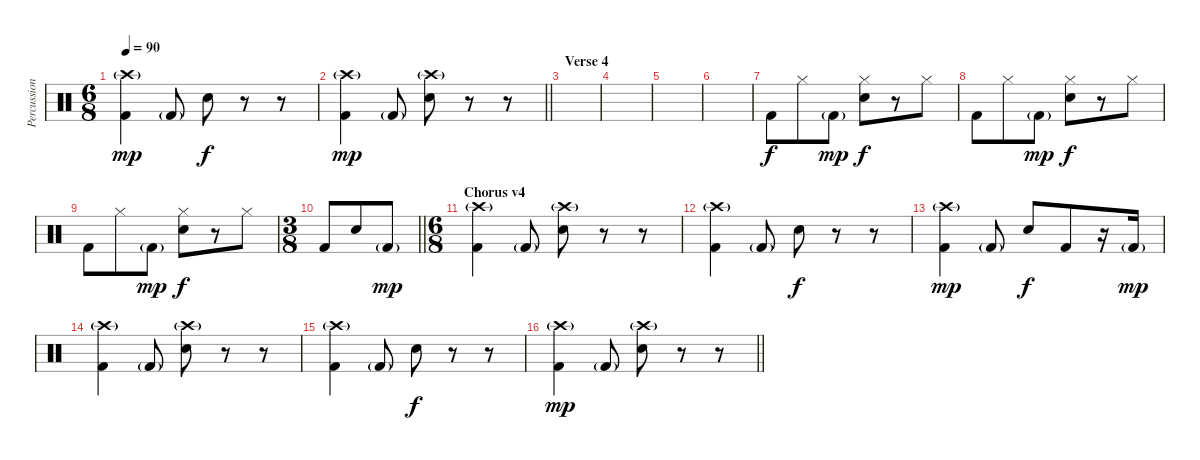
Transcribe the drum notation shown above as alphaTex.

\track ("Percussion" "Percussion") {instrument percussion}
\staff {score}
\articulation defaults
\ts (6 8)
\tempo 90
\clef neutral
\ks c
("Crash high (hit)"{g} "Kick (hit) 2").4{dy mp} "Kick (hit) 2"{g}.8 "Snare (hit) 2".8{dy f} r.8 r.8 |
\barLineRight lightlight
("Crash high (hit)"{g} "Kick (hit) 2").4{dy mp} "Kick (hit) 2"{g}.8 ("Crash high (hit)"{g} "Snare (hit) 2").8 r.8 r.8 |
\section ("" "Verse 4")
|
|
|
|
"Kick (hit) 2".8{dy f} "Hi-Hat (closed)".8 "Kick (hit) 2"{g}.8{dy mp} ("Hi-Hat (closed)" "Snare (hit) 2").8{dy f} r.8 "Hi-Hat (closed)".8 |
"Kick (hit) 2".8 "Hi-Hat (closed)".8 "Kick (hit) 2"{g}.8{dy mp} ("Hi-Hat (closed)" "Snare (hit) 2").8{dy f} r.8 "Hi-Hat (closed)".8 |
"Kick (hit) 2".8 "Hi-Hat (closed)".8 "Kick (hit) 2"{g}.8{dy mp} ("Hi-Hat (closed)" "Snare (hit) 2").8{dy f} r.8 "Hi-Hat (closed)".8 |
\ts (3 8)
\barLineRight lightlight "Kick (hit) 2".8 "Snare (hit) 2".8 "Kick (hit) 2"{g}.8{dy mp}
|
\ts (6 8)
\section ("" "Chorus v4")
("Crash high (hit)"{g} "Kick (hit) 2").4 "Kick (hit) 2"{g}.8 ("Crash high (hit)"{g} "Snare (hit) 2").8 r.8 r.8 |
("Crash high (hit)"{g} "Kick (hit) 2").4 "Kick (hit) 2"{g}.8 "Snare (hit) 2".8{dy f} r.8 r.8 |
("Crash high (hit)"{g} "Kick (hit) 2").4{dy mp} "Kick (hit) 2"{g}.8 "Snare (hit) 2".8{dy f} "Kick (hit) 2".8 r.16 "Kick (hit) 2"{g}.16{dy mp} |
("Crash high (hit)"{g} "Kick (hit) 2").4 "Kick (hit) 2"{g}.8 ("Crash high (hit)"{g} "Snare (hit) 2").8 r.8 r.8 |
("Crash high (hit)"{g} "Kick (hit) 2").4 "Kick (hit) 2"{g}.8 "Snare (hit) 2".8{dy f} r.8 r.8 |
\barLineRight lightlight
("Crash high (hit)"{g} "Kick (hit) 2").4{dy mp} "Kick (hit) 2"{g}.8 ("Crash high (hit)"{g} "Snare (hit) 2").8 r.8 r.8
